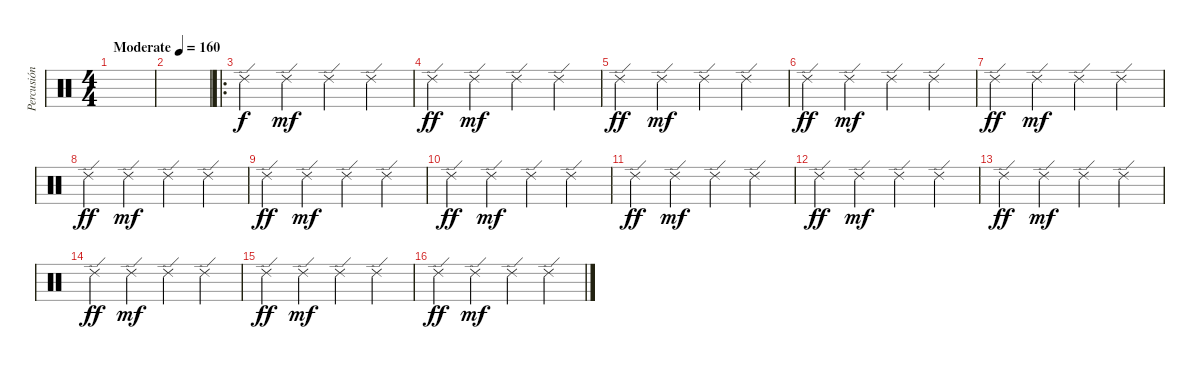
\track ("Percusión" "Percusión") {instrument percussion}
\staff {score}
\articulation defaults
\ts (4 4)
\tempo (160 "Moderate")
\clef neutral
\ks c
|
|
\ro "Ride (edge) 2".4 "Ride (edge) 2".4{dy mf} "Ride (edge) 2".4 "Ride (edge) 2".4
|
"Ride (edge) 2".4{dy ff} "Ride (edge) 2".4{dy mf} "Ride (edge) 2".4 "Ride (edge) 2".4 |
"Ride (edge) 2".4{dy ff} "Ride (edge) 2".4{dy mf} "Ride (edge) 2".4 "Ride (edge) 2".4 |
"Ride (edge) 2".4{dy ff} "Ride (edge) 2".4{dy mf} "Ride (edge) 2".4 "Ride (edge) 2".4 |
"Ride (edge) 2".4{dy ff} "Ride (edge) 2".4{dy mf} "Ride (edge) 2".4 "Ride (edge) 2".4 |
"Ride (edge) 2".4{dy ff} "Ride (edge) 2".4{dy mf} "Ride (edge) 2".4 "Ride (edge) 2".4 |
"Ride (edge) 2".4{dy ff} "Ride (edge) 2".4{dy mf} "Ride (edge) 2".4 "Ride (edge) 2".4 |
"Ride (edge) 2".4{dy ff} "Ride (edge) 2".4{dy mf} "Ride (edge) 2".4 "Ride (edge) 2".4 |
"Ride (edge) 2".4{dy ff} "Ride (edge) 2".4{dy mf} "Ride (edge) 2".4 "Ride (edge) 2".4 |
"Ride (edge) 2".4{dy ff} "Ride (edge) 2".4{dy mf} "Ride (edge) 2".4 "Ride (edge) 2".4 |
"Ride (edge) 2".4{dy ff} "Ride (edge) 2".4{dy mf} "Ride (edge) 2".4 "Ride (edge) 2".4 |
"Ride (edge) 2".4{dy ff} "Ride (edge) 2".4{dy mf} "Ride (edge) 2".4 "Ride (edge) 2".4 |
"Ride (edge) 2".4{dy ff} "Ride (edge) 2".4{dy mf} "Ride (edge) 2".4 "Ride (edge) 2".4 |
"Ride (edge) 2".4{dy ff} "Ride (edge) 2".4{dy mf} "Ride (edge) 2".4 "Ride (edge) 2".4
